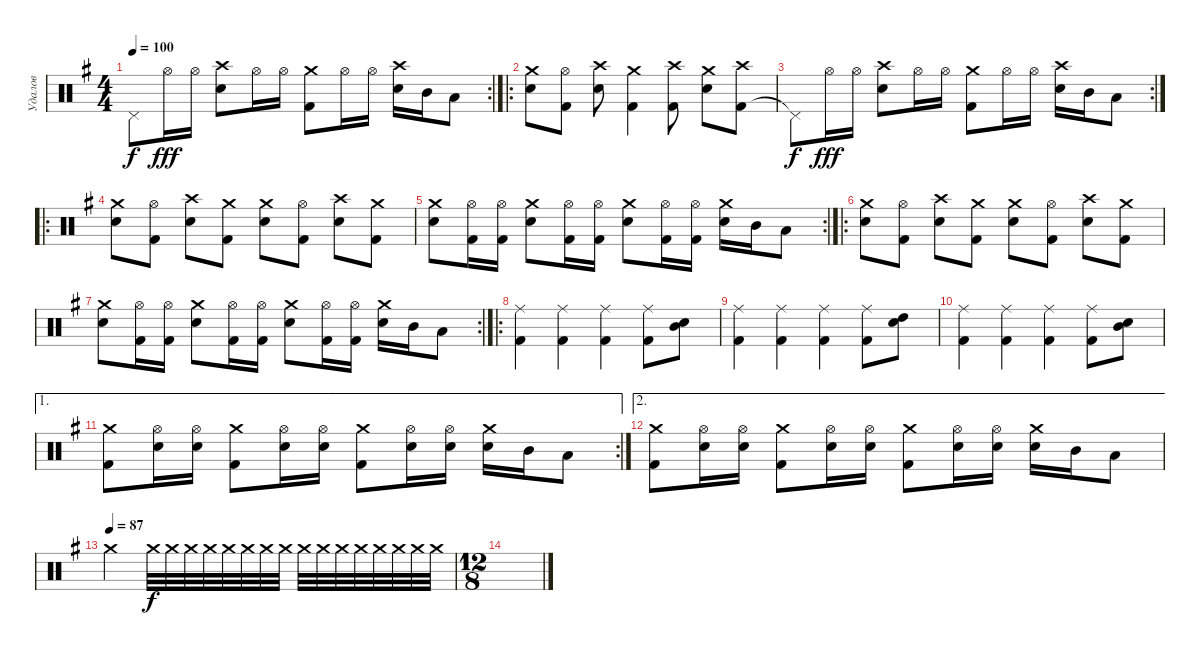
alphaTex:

\track ("Удалов" "Удалов") {instrument percussion}
\staff {score}
\articulation defaults
\rc 2
\ts (4 4)
\tempo 100
\clef neutral
\ks g "Pedal Hi-Hat (hit)"{t}.8{dy f} "Hi-Hat (open)".16{dy fff} "Hi-Hat (open)".16
("Electric Snare (hit)" "Crash high (hit)").8 "Hi-Hat (open)".16 "Hi-Hat (open)".16 ("Kick (hit) 2" "Crash medium (hit)").8 "Hi-Hat (open)".16 "Hi-Hat (open)".16 ("Electric Snare (hit)" "Crash high (hit)").16 "Mid Tom (hit)".16 "Low Tom (hit)".8 |
\ro
("Electric Snare (hit)" "Crash medium (hit)").8 ("Kick (hit) 2" "Hi-Hat (open)").8 ("Electric Snare (hit)" "Crash high (hit)").8 ("Kick (hit) 2" "Crash medium (hit)").4 ("Kick (hit) 2" "Crash high (hit)").8 ("Electric Snare (hit)" "Crash medium (hit)").8 ("Kick (hit) 2" "Crash high (hit)").8 |
\rc 2 "Pedal Hi-Hat (hit)"{t}.8{dy f} "Hi-Hat (open)".16{dy fff} "Hi-Hat (open)".16
("Electric Snare (hit)" "Crash high (hit)").8 "Hi-Hat (open)".16 "Hi-Hat (open)".16 ("Kick (hit) 2" "Crash medium (hit)").8 "Hi-Hat (open)".16 "Hi-Hat (open)".16 ("Electric Snare (hit)" "Crash high (hit)").16 "Mid Tom (hit)".16 "Low Tom (hit)".8 |
\ro
("Electric Snare (hit)" "Crash medium (hit)").8 ("Kick (hit) 2" "Hi-Hat (open)").8 ("Electric Snare (hit)" "Crash high (hit)").8 ("Kick (hit) 2" "Crash medium (hit)").8 ("Electric Snare (hit)" "Crash medium (hit)").8 ("Kick (hit) 2" "Hi-Hat (open)").8 ("Electric Snare (hit)" "Crash high (hit)").8 ("Kick (hit) 2" "Crash medium (hit)").8 |
\rc 2
("Electric Snare (hit)" "Crash medium (hit)").8 ("Kick (hit) 2" "Hi-Hat (open)").16 ("Kick (hit) 2" "Hi-Hat (open)").16 ("Electric Snare (hit)" "Crash medium (hit)").8 ("Kick (hit) 2" "Hi-Hat (open)").16 ("Kick (hit) 2" "Hi-Hat (open)").16 ("Electric Snare (hit)" "Crash medium (hit)").8 ("Kick (hit) 2" "Hi-Hat (open)").16 ("Kick (hit) 2" "Hi-Hat (open)").16 ("Electric Snare (hit)" "Crash medium (hit)").16 "Mid Tom (hit)".16 "Low Tom (hit)".8 |
\ro
("Electric Snare (hit)" "Crash medium (hit)").8 ("Kick (hit) 2" "Hi-Hat (open)").8 ("Electric Snare (hit)" "Crash high (hit)").8 ("Kick (hit) 2" "Crash medium (hit)").8 ("Electric Snare (hit)" "Crash medium (hit)").8 ("Kick (hit) 2" "Hi-Hat (open)").8 ("Electric Snare (hit)" "Crash high (hit)").8 ("Kick (hit) 2" "Crash medium (hit)").8 |
\rc 2
("Electric Snare (hit)" "Crash medium (hit)").8 ("Kick (hit) 2" "Hi-Hat (open)").16 ("Kick (hit) 2" "Hi-Hat (open)").16 ("Electric Snare (hit)" "Crash medium (hit)").8 ("Kick (hit) 2" "Hi-Hat (open)").16 ("Kick (hit) 2" "Hi-Hat (open)").16 ("Electric Snare (hit)" "Crash medium (hit)").8 ("Kick (hit) 2" "Hi-Hat (open)").16 ("Kick (hit) 2" "Hi-Hat (open)").16 ("Electric Snare (hit)" "Crash medium (hit)").16 "Mid Tom (hit)".16 "Low Tom (hit)".8 |
\ro
("Kick (hit) 2" "Ride (middle)").4 ("Kick (hit) 2" "Ride (middle)").4 ("Kick (hit) 2" "Ride (middle)").4 ("Kick (hit) 2" "Ride (middle)").8 ("Mid Tom (hit)" "Electric Snare (hit)").8 |
("Kick (hit) 2" "Ride (middle)").4 ("Kick (hit) 2" "Ride (middle)").4 ("Kick (hit) 2" "Ride (middle)").4 ("Kick (hit) 2" "Ride (middle)").8 ("High Tom (hit)" "Electric Snare (hit)").8 |
("Kick (hit) 2" "Ride (middle)").4 ("Kick (hit) 2" "Ride (middle)").4 ("Kick (hit) 2" "Ride (middle)").4 ("Kick (hit) 2" "Ride (middle)").8 ("Mid Tom (hit)" "Electric Snare (hit)").8 |
\ae 1
\rc 2
("Kick (hit) 2" "Crash medium (hit)").8 ("Electric Snare (hit)" "Hi-Hat (open)").16 ("Electric Snare (hit)" "Hi-Hat (open)").16 ("Kick (hit) 2" "Crash medium (hit)").8 ("Electric Snare (hit)" "Hi-Hat (open)").16 ("Electric Snare (hit)" "Hi-Hat (open)").16 ("Kick (hit) 2" "Crash medium (hit)").8 ("Electric Snare (hit)" "Hi-Hat (open)").16 ("Electric Snare (hit)" "Hi-Hat (open)").16 ("Electric Snare (hit)" "Crash medium (hit)").16 "Mid Tom (hit)".16 "Low Tom (hit)".8 |
\ae 2
("Kick (hit) 2" "Crash medium (hit)").8 ("Electric Snare (hit)" "Hi-Hat (open)").16 ("Electric Snare (hit)" "Hi-Hat (open)").16 ("Kick (hit) 2" "Crash medium (hit)").8 ("Electric Snare (hit)" "Hi-Hat (open)").16 ("Electric Snare (hit)" "Hi-Hat (open)").16 ("Kick (hit) 2" "Crash medium (hit)").8 ("Electric Snare (hit)" "Hi-Hat (open)").16 ("Electric Snare (hit)" "Hi-Hat (open)").16 ("Electric Snare (hit)" "Crash medium (hit)").16 "Mid Tom (hit)".16 "Low Tom (hit)".8 |
\tempo (87)
"Crash medium (hit)".2 "Crash medium (hit)".32{dy f volume 0} "Crash medium (hit)".32{volume 13} "Crash medium (hit)".32 "Crash medium (hit)".32 "Crash medium (hit)".32 "Crash medium (hit)".32 "Crash medium (hit)".32 "Crash medium (hit)".32 "Crash medium (hit)".32 "Crash medium (hit)".32 "Crash medium (hit)".32 "Crash medium (hit)".32 "Crash medium (hit)".32 "Crash medium (hit)".32 "Crash medium (hit)".32 "Crash medium (hit)".32 |
\ts (12 8)
